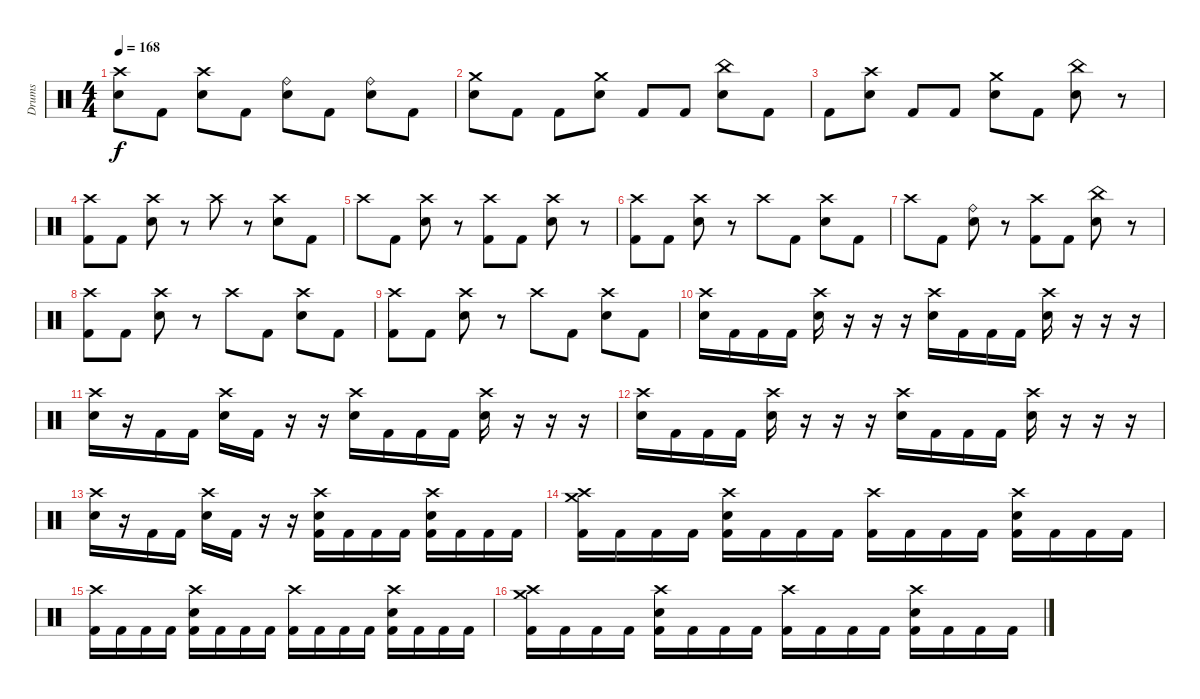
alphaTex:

\track ("Drums" "Drums") {instrument percussion}
\staff {score}
\articulation defaults
\ts (4 4)
\tempo 168
\clef neutral
\ks c
("Crash high (hit)" "Snare (hit) 2").8{dy f} "Kick (hit) 2".8 ("Crash high (hit)" "Snare (hit) 2").8 "Kick (hit) 2".8 ("Ride (bell)" "Snare (hit) 2").8 "Kick (hit) 2".8 ("Ride (bell)" "Snare (hit) 2").8 "Kick (hit) 2".8 |
("Crash medium (hit)" "Snare (hit) 2").8 "Kick (hit) 2".8 "Kick (hit) 2".8 ("Crash medium (hit)" "Snare (hit) 2").8 "Kick (hit) 2".8 "Kick (hit) 2".8 ("China (hit)" "Snare (hit) 2").8 "Kick (hit) 2".8 |
"Kick (hit) 2".8 ("Crash high (hit)" "Snare (hit) 2").8 "Kick (hit) 2".8 "Kick (hit) 2".8 ("Crash medium (hit)" "Snare (hit) 2").8 "Kick (hit) 2".8 ("China (hit)" "Snare (hit) 2").8 r.8 |
("Crash high (hit)" "Kick (hit) 2").8 "Kick (hit) 2".8 ("Crash high (hit)" "Snare (hit) 2").8 r.8 "Crash high (hit)".8 r.8 ("Crash high (hit)" "Snare (hit) 2").8 "Kick (hit) 2".8 |
"Crash high (hit)".8 "Kick (hit) 2".8 ("Crash high (hit)" "Snare (hit) 2").8 r.8 ("Crash high (hit)" "Kick (hit) 2").8 "Kick (hit) 2".8 ("Crash high (hit)" "Snare (hit) 2").8 r.8 |
("Crash high (hit)" "Kick (hit) 2").8 "Kick (hit) 2".8 ("Crash high (hit)" "Snare (hit) 2").8 r.8 "Crash high (hit)".8 "Kick (hit) 2".8 ("Crash high (hit)" "Snare (hit) 2").8 "Kick (hit) 2".8 |
"Crash high (hit)".8 "Kick (hit) 2".8 ("Ride (bell)" "Snare (hit) 2").8 r.8 ("Crash high (hit)" "Kick (hit) 2").8 "Kick (hit) 2".8 ("China (hit)" "Snare (hit) 2").8 r.8 |
("Crash high (hit)" "Kick (hit) 2").8 "Kick (hit) 2".8 ("Crash high (hit)" "Snare (hit) 2").8 r.8 "Crash high (hit)".8 "Kick (hit) 2".8 ("Crash high (hit)" "Snare (hit) 2").8 "Kick (hit) 2".8 |
("Crash high (hit)" "Kick (hit) 2").8 "Kick (hit) 2".8 ("Crash high (hit)" "Snare (hit) 2").8 r.8 "Crash high (hit)".8 "Kick (hit) 2".8 ("Crash high (hit)" "Snare (hit) 2").8 "Kick (hit) 2".8 |
("Crash high (hit)" "Snare (hit) 2").16 "Kick (hit) 2".16 "Kick (hit) 2".16 "Kick (hit) 2".16 ("Crash high (hit)" "Snare (hit) 2").16 r.16 r.16 r.16 ("Crash high (hit)" "Snare (hit) 2").16 "Kick (hit) 2".16 "Kick (hit) 2".16 "Kick (hit) 2".16 ("Crash high (hit)" "Snare (hit) 2").16 r.16 r.16 r.16 |
("Crash high (hit)" "Snare (hit) 2").16 r.16 "Kick (hit) 2".16 "Kick (hit) 2".16 ("Crash high (hit)" "Snare (hit) 2").16 "Kick (hit) 2".16 r.16 r.16 ("Crash high (hit)" "Snare (hit) 2").16 "Kick (hit) 2".16 "Kick (hit) 2".16 "Kick (hit) 2".16 ("Crash high (hit)" "Snare (hit) 2").16 r.16 r.16 r.16 |
("Crash high (hit)" "Snare (hit) 2").16 "Kick (hit) 2".16 "Kick (hit) 2".16 "Kick (hit) 2".16 ("Crash high (hit)" "Snare (hit) 2").16 r.16 r.16 r.16 ("Crash high (hit)" "Snare (hit) 2").16 "Kick (hit) 2".16 "Kick (hit) 2".16 "Kick (hit) 2".16 ("Crash high (hit)" "Snare (hit) 2").16 r.16 r.16 r.16 |
("Crash high (hit)" "Snare (hit) 2").16 r.16 "Kick (hit) 2".16 "Kick (hit) 2".16 ("Crash high (hit)" "Snare (hit) 2").16 "Kick (hit) 2".16 r.16 r.16 ("Crash high (hit)" "Snare (hit) 2" "Kick (hit) 2").16 "Kick (hit) 2".16 "Kick (hit) 2".16 "Kick (hit) 2".16 ("Crash high (hit)" "Snare (hit) 2" "Kick (hit) 2").16 "Kick (hit) 2".16 "Kick (hit) 2".16 "Kick (hit) 2".16 |
("Crash medium (hit)" "Crash high (hit)" "Kick (hit) 2").16 "Kick (hit) 2".16 "Kick (hit) 2".16 "Kick (hit) 2".16 ("Crash high (hit)" "Electric Snare (hit)" "Kick (hit) 2").16 "Kick (hit) 2".16 "Kick (hit) 2".16 "Kick (hit) 2".16 ("Crash high (hit)" "Kick (hit) 2").16 "Kick (hit) 2".16 "Kick (hit) 2".16 "Kick (hit) 2".16 ("Crash high (hit)" "Electric Snare (hit)" "Kick (hit) 2").16 "Kick (hit) 2".16 "Kick (hit) 2".16 "Kick (hit) 2".16 |
("Crash high (hit)" "Kick (hit) 2").16 "Kick (hit) 2".16 "Kick (hit) 2".16 "Kick (hit) 2".16 ("Crash high (hit)" "Electric Snare (hit)" "Kick (hit) 2").16 "Kick (hit) 2".16 "Kick (hit) 2".16 "Kick (hit) 2".16 ("Crash high (hit)" "Kick (hit) 2").16 "Kick (hit) 2".16 "Kick (hit) 2".16 "Kick (hit) 2".16 ("Crash high (hit)" "Electric Snare (hit)" "Kick (hit) 2").16 "Kick (hit) 2".16 "Kick (hit) 2".16 "Kick (hit) 2".16 |
("Crash medium (hit)" "Crash high (hit)" "Kick (hit) 2").16 "Kick (hit) 2".16 "Kick (hit) 2".16 "Kick (hit) 2".16 ("Crash high (hit)" "Electric Snare (hit)" "Kick (hit) 2").16 "Kick (hit) 2".16 "Kick (hit) 2".16 "Kick (hit) 2".16 ("Crash high (hit)" "Kick (hit) 2").16 "Kick (hit) 2".16 "Kick (hit) 2".16 "Kick (hit) 2".16 ("Crash high (hit)" "Electric Snare (hit)" "Kick (hit) 2").16 "Kick (hit) 2".16 "Kick (hit) 2".16 "Kick (hit) 2".16
